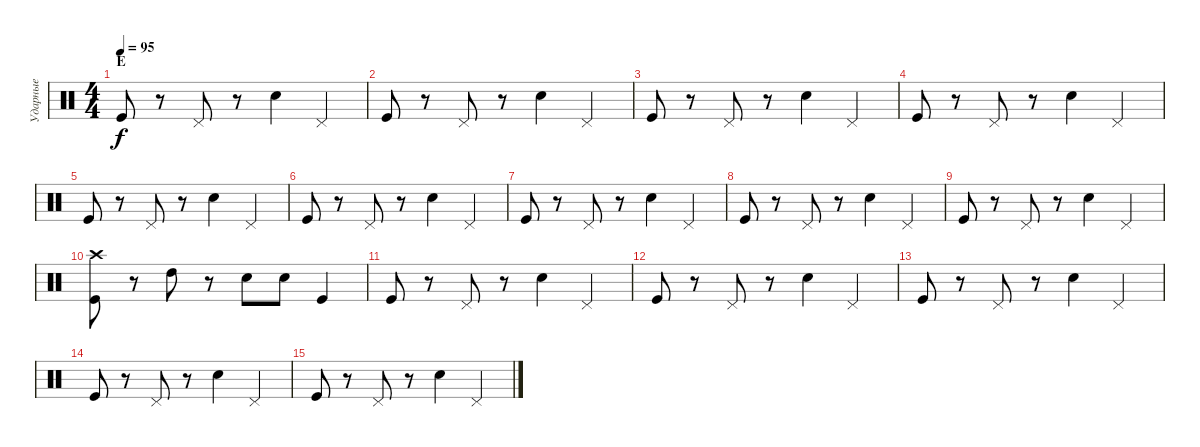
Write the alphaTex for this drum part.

\track ("Ударные" "Ударные") {instrument percussion}
\staff {score}
\articulation defaults
\ts (4 4)
\section ("" "Е")
\tempo 95
\clef neutral
\ks c "Kick (hit)".8{dy f}
r.8 "Pedal Hi-Hat (hit)".8 r.8 "Electric Snare (hit)".4 "Pedal Hi-Hat (hit)".4 |
"Kick (hit)".8 r.8 "Pedal Hi-Hat (hit)".8 r.8 "Electric Snare (hit)".4 "Pedal Hi-Hat (hit)".4 |
"Kick (hit)".8 r.8 "Pedal Hi-Hat (hit)".8 r.8 "Electric Snare (hit)".4 "Pedal Hi-Hat (hit)".4 |
"Kick (hit)".8 r.8 "Pedal Hi-Hat (hit)".8 r.8 "Electric Snare (hit)".4 "Pedal Hi-Hat (hit)".4 |
"Kick (hit)".8 r.8 "Pedal Hi-Hat (hit)".8 r.8 "Electric Snare (hit)".4 "Pedal Hi-Hat (hit)".4 |
"Kick (hit)".8 r.8 "Pedal Hi-Hat (hit)".8 r.8 "Electric Snare (hit)".4 "Pedal Hi-Hat (hit)".4 |
"Kick (hit)".8 r.8 "Pedal Hi-Hat (hit)".8 r.8 "Electric Snare (hit)".4 "Pedal Hi-Hat (hit)".4 |
"Kick (hit)".8 r.8 "Pedal Hi-Hat (hit)".8 r.8 "Electric Snare (hit)".4 "Pedal Hi-Hat (hit)".4 |
"Kick (hit)".8 r.8 "Pedal Hi-Hat (hit)".8 r.8 "Electric Snare (hit)".4 "Pedal Hi-Hat (hit)".4 |
("Crash high (hit)" "Kick (hit)").8 r.8 "High Tom (hit)".8 r.8 "Snare (hit) 2".8 "Snare (hit) 2".8 "Kick (hit)".4 |
"Kick (hit)".8 r.8 "Pedal Hi-Hat (hit)".8 r.8 "Electric Snare (hit)".4 "Pedal Hi-Hat (hit)".4 |
"Kick (hit)".8 r.8 "Pedal Hi-Hat (hit)".8 r.8 "Electric Snare (hit)".4 "Pedal Hi-Hat (hit)".4 |
"Kick (hit)".8 r.8 "Pedal Hi-Hat (hit)".8 r.8 "Electric Snare (hit)".4 "Pedal Hi-Hat (hit)".4 |
"Kick (hit)".8 r.8 "Pedal Hi-Hat (hit)".8 r.8 "Electric Snare (hit)".4 "Pedal Hi-Hat (hit)".4 |
"Kick (hit)".8 r.8 "Pedal Hi-Hat (hit)".8 r.8 "Electric Snare (hit)".4 "Pedal Hi-Hat (hit)".4
